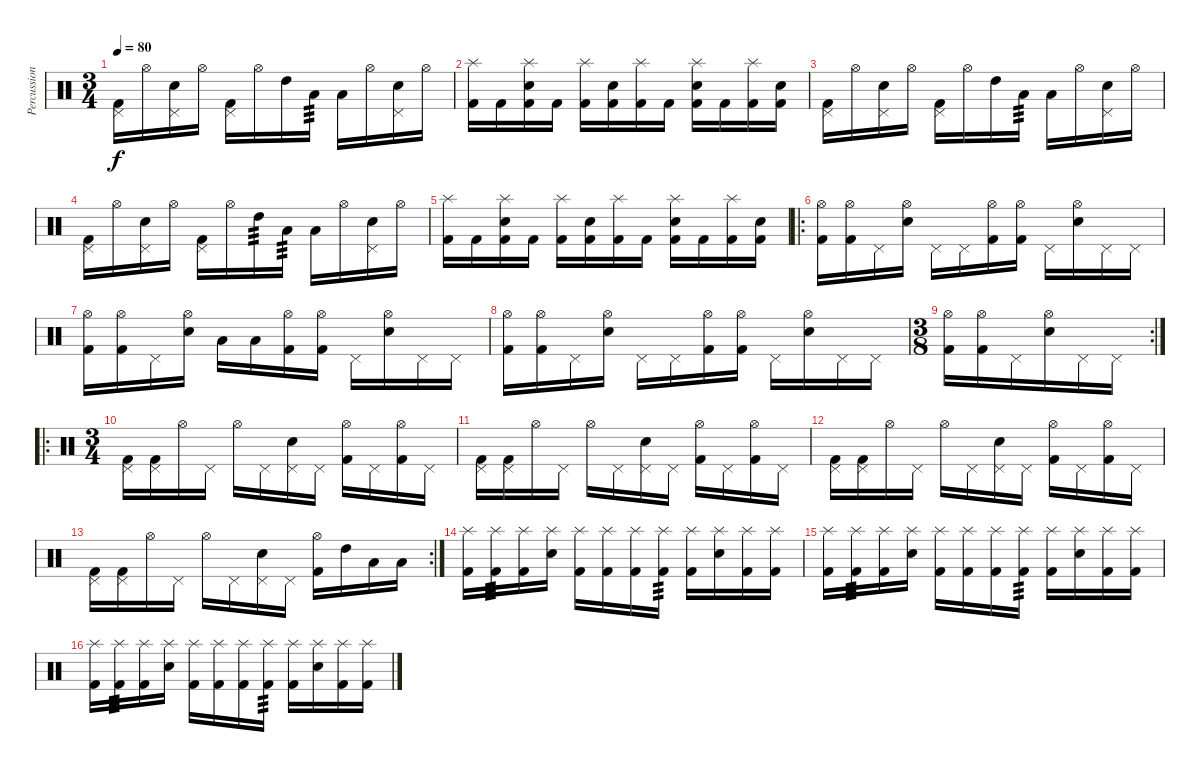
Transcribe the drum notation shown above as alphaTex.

\track ("Percussion" "Percussion") {instrument percussion}
\staff {score}
\articulation defaults
\ts (3 4)
\tempo 80
\clef neutral
\ks c
("Pedal Hi-Hat (hit)" "Kick (hit) 2").16{dy f} "Hi-Hat (open)".16 ("Pedal Hi-Hat (hit)" "Electric Snare (hit)").16 "Hi-Hat (open)".16 ("Pedal Hi-Hat (hit)" "Kick (hit) 2").16 "Hi-Hat (open)".16 "High Tom (hit)".16 "Low Tom (hit)".16{tp 3} "Low Floor Tom (hit)".16 "Hi-Hat (open)".16 ("Pedal Hi-Hat (hit)" "Electric Snare (hit)").16 "Hi-Hat (open)".16 |
("Splash (hit)" "Kick (hit) 2").16 "Kick (hit) 2".16 ("Splash (hit)" "Electric Snare (hit)" "Kick (hit) 2").16 "Kick (hit) 2".16 ("Splash (hit)" "Kick (hit) 2").16 ("Electric Snare (hit)" "Kick (hit) 2").16 ("Splash (hit)" "Kick (hit) 2").16 "Kick (hit) 2".16 ("Splash (hit)" "Electric Snare (hit)" "Kick (hit) 2").16 "Kick (hit) 2".16 ("Splash (hit)" "Kick (hit) 2").16 ("Electric Snare (hit)" "Kick (hit) 2").16 |
("Pedal Hi-Hat (hit)" "Kick (hit) 2").16 "Hi-Hat (open)".16 ("Pedal Hi-Hat (hit)" "Electric Snare (hit)").16 "Hi-Hat (open)".16 ("Pedal Hi-Hat (hit)" "Kick (hit) 2").16 "Hi-Hat (open)".16 "High Tom (hit)".16 "Low Tom (hit)".16{tp 3} "Low Floor Tom (hit)".16 "Hi-Hat (open)".16 ("Pedal Hi-Hat (hit)" "Electric Snare (hit)").16 "Hi-Hat (open)".16 |
("Pedal Hi-Hat (hit)" "Kick (hit) 2").16 "Hi-Hat (open)".16 ("Pedal Hi-Hat (hit)" "Electric Snare (hit)").16 "Hi-Hat (open)".16 ("Pedal Hi-Hat (hit)" "Kick (hit) 2").16 "Hi-Hat (open)".16 "High Tom (hit)".16{tp 3} "Low Tom (hit)".16{tp 3} "Low Floor Tom (hit)".16 "Hi-Hat (open)".16 ("Pedal Hi-Hat (hit)" "Electric Snare (hit)").16 "Hi-Hat (open)".16 |
("Splash (hit)" "Kick (hit) 2").16 "Kick (hit) 2".16 ("Splash (hit)" "Electric Snare (hit)" "Kick (hit) 2").16 "Kick (hit) 2".16 ("Splash (hit)" "Kick (hit) 2").16 ("Electric Snare (hit)" "Kick (hit) 2").16 ("Splash (hit)" "Kick (hit) 2").16 "Kick (hit) 2".16 ("Splash (hit)" "Electric Snare (hit)" "Kick (hit) 2").16 "Kick (hit) 2".16 ("Splash (hit)" "Kick (hit) 2").16 ("Electric Snare (hit)" "Kick (hit) 2").16 |
\ro
("Hi-Hat (open)" "Kick (hit) 2").16 ("Hi-Hat (open)" "Kick (hit) 2").16 "Pedal Hi-Hat (hit)".16 ("Hi-Hat (open)" "Electric Snare (hit)").16 "Pedal Hi-Hat (hit)".16 "Pedal Hi-Hat (hit)".16 ("Hi-Hat (open)" "Kick (hit) 2").16 ("Hi-Hat (open)" "Kick (hit) 2").16 "Pedal Hi-Hat (hit)".16 ("Hi-Hat (open)" "Electric Snare (hit)").16 "Pedal Hi-Hat (hit)".16 "Pedal Hi-Hat (hit)".16 |
("Hi-Hat (open)" "Kick (hit) 2").16 ("Hi-Hat (open)" "Kick (hit) 2").16 "Pedal Hi-Hat (hit)".16 ("Hi-Hat (open)" "Electric Snare (hit)").16 "Low Floor Tom (hit)".16 "Low Tom (hit)".16 ("Hi-Hat (open)" "Kick (hit) 2").16 ("Hi-Hat (open)" "Kick (hit) 2").16 "Pedal Hi-Hat (hit)".16 ("Hi-Hat (open)" "Electric Snare (hit)").16 "Pedal Hi-Hat (hit)".16 "Pedal Hi-Hat (hit)".16 |
("Hi-Hat (open)" "Kick (hit) 2").16 ("Hi-Hat (open)" "Kick (hit) 2").16 "Pedal Hi-Hat (hit)".16 ("Hi-Hat (open)" "Electric Snare (hit)").16 "Pedal Hi-Hat (hit)".16 "Pedal Hi-Hat (hit)".16 ("Hi-Hat (open)" "Kick (hit) 2").16 ("Hi-Hat (open)" "Kick (hit) 2").16 "Pedal Hi-Hat (hit)".16 ("Hi-Hat (open)" "Electric Snare (hit)").16 "Pedal Hi-Hat (hit)".16 "Pedal Hi-Hat (hit)".16 |
\rc 2
\ts (3 8)
("Hi-Hat (open)" "Kick (hit) 2").16 ("Hi-Hat (open)" "Kick (hit) 2").16 "Pedal Hi-Hat (hit)".16 ("Hi-Hat (open)" "Electric Snare (hit)").16 "Pedal Hi-Hat (hit)".16 "Pedal Hi-Hat (hit)".16 |
\ro
\ts (3 4)
("Pedal Hi-Hat (hit)" "Kick (hit) 2").16 ("Pedal Hi-Hat (hit)" "Kick (hit) 2").16 "Hi-Hat (open)".16 "Pedal Hi-Hat (hit)".16 "Hi-Hat (open)".16 "Pedal Hi-Hat (hit)".16 ("Pedal Hi-Hat (hit)" "Electric Snare (hit)").16 "Pedal Hi-Hat (hit)".16 ("Hi-Hat (open)" "Kick (hit) 2").16 "Pedal Hi-Hat (hit)".16 ("Hi-Hat (open)" "Kick (hit) 2").16 "Pedal Hi-Hat (hit)".16 |
("Pedal Hi-Hat (hit)" "Kick (hit) 2").16 ("Pedal Hi-Hat (hit)" "Kick (hit) 2").16 "Hi-Hat (open)".16 "Pedal Hi-Hat (hit)".16 "Hi-Hat (open)".16 "Pedal Hi-Hat (hit)".16 ("Pedal Hi-Hat (hit)" "Electric Snare (hit)").16 "Pedal Hi-Hat (hit)".16 ("Hi-Hat (open)" "Kick (hit) 2").16 "Pedal Hi-Hat (hit)".16 ("Hi-Hat (open)" "Kick (hit) 2").16 "Pedal Hi-Hat (hit)".16 |
("Pedal Hi-Hat (hit)" "Kick (hit) 2").16 ("Pedal Hi-Hat (hit)" "Kick (hit) 2").16 "Hi-Hat (open)".16 "Pedal Hi-Hat (hit)".16 "Hi-Hat (open)".16 "Pedal Hi-Hat (hit)".16 ("Pedal Hi-Hat (hit)" "Electric Snare (hit)").16 "Pedal Hi-Hat (hit)".16 ("Hi-Hat (open)" "Kick (hit) 2").16 "Pedal Hi-Hat (hit)".16 ("Hi-Hat (open)" "Kick (hit) 2").16 "Pedal Hi-Hat (hit)".16 |
\rc 2
("Pedal Hi-Hat (hit)" "Kick (hit) 2").16 ("Pedal Hi-Hat (hit)" "Kick (hit) 2").16 "Hi-Hat (open)".16 "Pedal Hi-Hat (hit)".16 "Hi-Hat (open)".16 "Pedal Hi-Hat (hit)".16 ("Pedal Hi-Hat (hit)" "Electric Snare (hit)").16 "Pedal Hi-Hat (hit)".16 ("Hi-Hat (open)" "Kick (hit) 2").16 "High Tom (hit)".16 "Low Tom (hit)".16 "Low Floor Tom (hit)".16 |
("Splash (hit)" "Kick (hit) 2").16 ("Splash (hit)" "Kick (hit) 2").16{tp 3} ("Splash (hit)" "Kick (hit) 2").16 ("Splash (hit)" "Electric Snare (hit)").16 ("Splash (hit)" "Kick (hit) 2").16 ("Splash (hit)" "Kick (hit) 2").16 ("Splash (hit)" "Kick (hit) 2").16 ("Splash (hit)" "Kick (hit) 2").16{tp 3} ("Splash (hit)" "Kick (hit) 2").16 ("Splash (hit)" "Electric Snare (hit)").16 ("Splash (hit)" "Kick (hit) 2").16 ("Splash (hit)" "Kick (hit) 2").16 |
("Splash (hit)" "Kick (hit) 2").16 ("Splash (hit)" "Kick (hit) 2").16{tp 3} ("Splash (hit)" "Kick (hit) 2").16 ("Splash (hit)" "Electric Snare (hit)").16 ("Splash (hit)" "Kick (hit) 2").16 ("Splash (hit)" "Kick (hit) 2").16 ("Splash (hit)" "Kick (hit) 2").16 ("Splash (hit)" "Kick (hit) 2").16{tp 3} ("Splash (hit)" "Kick (hit) 2").16 ("Splash (hit)" "Electric Snare (hit)").16 ("Splash (hit)" "Kick (hit) 2").16 ("Splash (hit)" "Kick (hit) 2").16 |
("Splash (hit)" "Kick (hit) 2").16 ("Splash (hit)" "Kick (hit) 2").16{tp 3} ("Splash (hit)" "Kick (hit) 2").16 ("Splash (hit)" "Electric Snare (hit)").16 ("Splash (hit)" "Kick (hit) 2").16 ("Splash (hit)" "Kick (hit) 2").16 ("Splash (hit)" "Kick (hit) 2").16 ("Splash (hit)" "Kick (hit) 2").16{tp 3} ("Splash (hit)" "Kick (hit) 2").16 ("Splash (hit)" "Electric Snare (hit)").16 ("Splash (hit)" "Kick (hit) 2").16 ("Splash (hit)" "Kick (hit) 2").16
